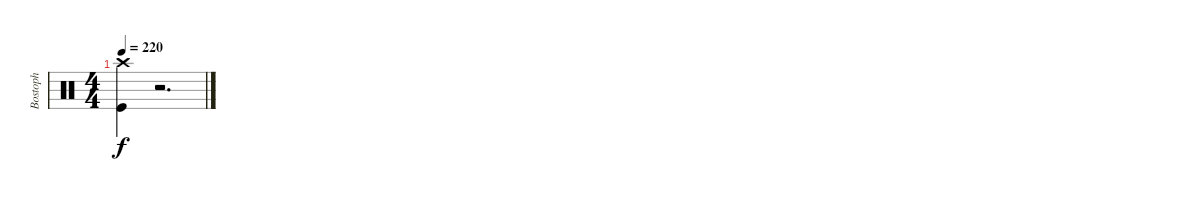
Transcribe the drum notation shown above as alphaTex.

\track ("Bostoph" "Bostoph") {instrument percussion}
\staff {score}
\articulation defaults
\ts (4 4)
\tempo 220
\clef neutral
\ks c
("Crash high (hit)" "Kick (hit)").4{dy f} r.2{d}
